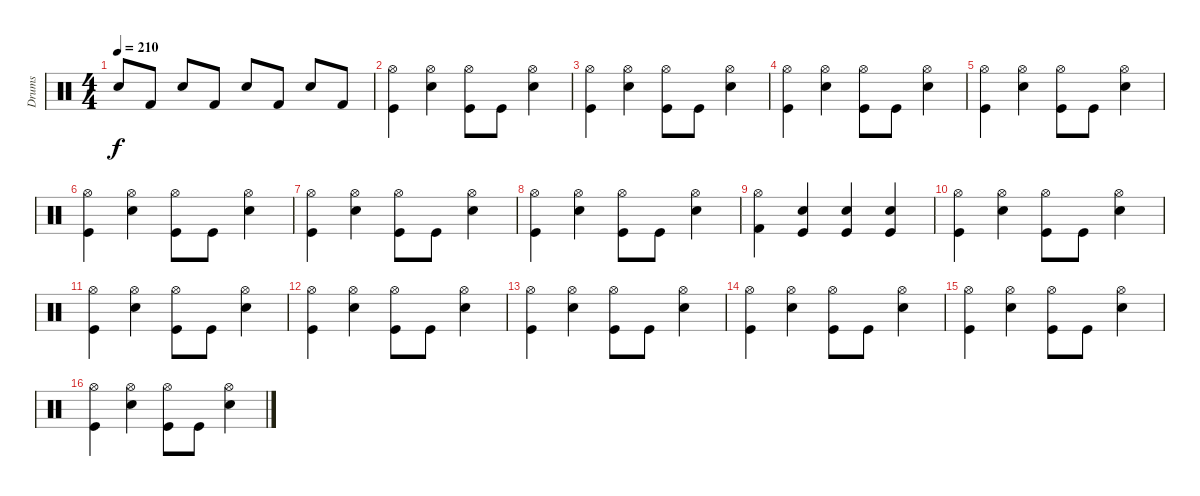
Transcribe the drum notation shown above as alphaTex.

\track ("Drums" "Drums") {instrument percussion}
\staff {score}
\articulation defaults
\ts (4 4)
\tempo 210
\clef neutral
\ks c "Electric Snare (hit)".8{dy f} "Kick (hit) 2".8 "Electric Snare (hit)".8 "Kick (hit) 2".8 "Electric Snare (hit)".8 "Kick (hit) 2".8 "Electric Snare (hit)".8 "Kick (hit) 2".8
|
("Hi-Hat (open)" "Kick (hit)").4 ("Hi-Hat (open)" "Electric Snare (hit)").4 ("Hi-Hat (open)" "Kick (hit)").8 "Kick (hit)".8 ("Hi-Hat (open)" "Electric Snare (hit)").4 |
("Hi-Hat (open)" "Kick (hit)").4 ("Hi-Hat (open)" "Electric Snare (hit)").4 ("Hi-Hat (open)" "Kick (hit)").8 "Kick (hit)".8 ("Hi-Hat (open)" "Electric Snare (hit)").4 |
("Hi-Hat (open)" "Kick (hit)").4 ("Hi-Hat (open)" "Electric Snare (hit)").4 ("Hi-Hat (open)" "Kick (hit)").8 "Kick (hit)".8 ("Hi-Hat (open)" "Electric Snare (hit)").4 |
("Hi-Hat (open)" "Kick (hit)").4 ("Hi-Hat (open)" "Electric Snare (hit)").4 ("Hi-Hat (open)" "Kick (hit)").8 "Kick (hit)".8 ("Hi-Hat (open)" "Electric Snare (hit)").4 |
("Hi-Hat (open)" "Kick (hit)").4 ("Hi-Hat (open)" "Electric Snare (hit)").4 ("Hi-Hat (open)" "Kick (hit)").8 "Kick (hit)".8 ("Hi-Hat (open)" "Electric Snare (hit)").4 |
("Hi-Hat (open)" "Kick (hit)").4 ("Hi-Hat (open)" "Electric Snare (hit)").4 ("Hi-Hat (open)" "Kick (hit)").8 "Kick (hit)".8 ("Hi-Hat (open)" "Electric Snare (hit)").4 |
("Hi-Hat (open)" "Kick (hit)").4 ("Hi-Hat (open)" "Electric Snare (hit)").4 ("Hi-Hat (open)" "Kick (hit)").8 "Kick (hit)".8 ("Hi-Hat (open)" "Electric Snare (hit)").4 |
("Hi-Hat (open)" "Kick (hit) 2").4 ("Electric Snare (hit)" "Kick (hit)").4 ("Electric Snare (hit)" "Kick (hit)").4 ("Electric Snare (hit)" "Kick (hit)").4 |
("Hi-Hat (open)" "Kick (hit)").4 ("Hi-Hat (open)" "Electric Snare (hit)").4 ("Hi-Hat (open)" "Kick (hit)").8 "Kick (hit)".8 ("Hi-Hat (open)" "Electric Snare (hit)").4 |
("Hi-Hat (open)" "Kick (hit)").4 ("Hi-Hat (open)" "Electric Snare (hit)").4 ("Hi-Hat (open)" "Kick (hit)").8 "Kick (hit)".8 ("Hi-Hat (open)" "Electric Snare (hit)").4 |
("Hi-Hat (open)" "Kick (hit)").4 ("Hi-Hat (open)" "Electric Snare (hit)").4 ("Hi-Hat (open)" "Kick (hit)").8 "Kick (hit)".8 ("Hi-Hat (open)" "Electric Snare (hit)").4 |
("Hi-Hat (open)" "Kick (hit)").4 ("Hi-Hat (open)" "Electric Snare (hit)").4 ("Hi-Hat (open)" "Kick (hit)").8 "Kick (hit)".8 ("Hi-Hat (open)" "Electric Snare (hit)").4 |
("Hi-Hat (open)" "Kick (hit)").4 ("Hi-Hat (open)" "Electric Snare (hit)").4 ("Hi-Hat (open)" "Kick (hit)").8 "Kick (hit)".8 ("Hi-Hat (open)" "Electric Snare (hit)").4 |
("Hi-Hat (open)" "Kick (hit)").4 ("Hi-Hat (open)" "Electric Snare (hit)").4 ("Hi-Hat (open)" "Kick (hit)").8 "Kick (hit)".8 ("Hi-Hat (open)" "Electric Snare (hit)").4 |
("Hi-Hat (open)" "Kick (hit)").4 ("Hi-Hat (open)" "Electric Snare (hit)").4 ("Hi-Hat (open)" "Kick (hit)").8 "Kick (hit)".8 ("Hi-Hat (open)" "Electric Snare (hit)").4
